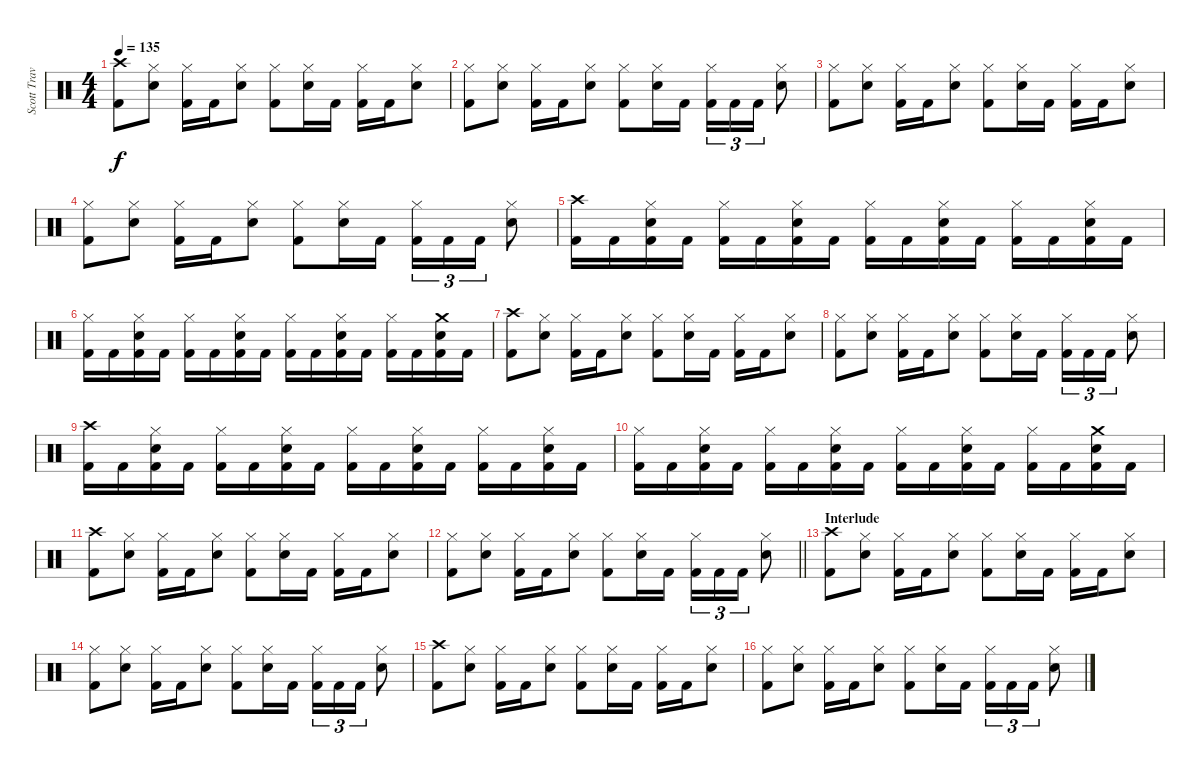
\track ("Scott Travis" "Scott Trav") {instrument percussion}
\staff {score}
\articulation defaults
\ts (4 4)
\tempo 135
\clef neutral
\ks c
("Crash high (hit)" "Kick (hit) 2").8{dy f} ("Hi-Hat (closed)" "Snare (hit) 2").8 ("Hi-Hat (closed)" "Kick (hit) 2").16 "Kick (hit) 2".16 ("Hi-Hat (closed)" "Snare (hit) 2").8 ("Hi-Hat (closed)" "Kick (hit) 2").8 ("Hi-Hat (closed)" "Snare (hit) 2").16 "Kick (hit) 2".16 ("Hi-Hat (closed)" "Kick (hit) 2").16 "Kick (hit) 2".16 ("Hi-Hat (closed)" "Snare (hit) 2").8 |
("Hi-Hat (closed)" "Kick (hit) 2").8 ("Hi-Hat (closed)" "Snare (hit) 2").8 ("Hi-Hat (closed)" "Kick (hit) 2").16 "Kick (hit) 2".16 ("Hi-Hat (closed)" "Snare (hit) 2").8 ("Hi-Hat (closed)" "Kick (hit) 2").8 ("Hi-Hat (closed)" "Snare (hit) 2").16 "Kick (hit) 2".16 ("Hi-Hat (closed)" "Kick (hit) 2").16{tu (3 2)} "Kick (hit) 2".16{tu (3 2)} "Kick (hit) 2".16{tu (3 2)} ("Hi-Hat (closed)" "Snare (hit) 2").8 |
("Hi-Hat (closed)" "Kick (hit) 2").8 ("Hi-Hat (closed)" "Snare (hit) 2").8 ("Hi-Hat (closed)" "Kick (hit) 2").16 "Kick (hit) 2".16 ("Hi-Hat (closed)" "Snare (hit) 2").8 ("Hi-Hat (closed)" "Kick (hit) 2").8 ("Hi-Hat (closed)" "Snare (hit) 2").16 "Kick (hit) 2".16 ("Hi-Hat (closed)" "Kick (hit) 2").16 "Kick (hit) 2".16 ("Hi-Hat (closed)" "Snare (hit) 2").8 |
("Hi-Hat (closed)" "Kick (hit) 2").8 ("Hi-Hat (closed)" "Snare (hit) 2").8 ("Hi-Hat (closed)" "Kick (hit) 2").16 "Kick (hit) 2".16 ("Hi-Hat (closed)" "Snare (hit) 2").8 ("Hi-Hat (closed)" "Kick (hit) 2").8 ("Hi-Hat (closed)" "Snare (hit) 2").16 "Kick (hit) 2".16 ("Hi-Hat (closed)" "Kick (hit) 2").16{tu (3 2)} "Kick (hit) 2".16{tu (3 2)} "Kick (hit) 2".16{tu (3 2)} ("Hi-Hat (closed)" "Snare (hit) 2").8 |
("Crash high (hit)" "Kick (hit) 2").16 "Kick (hit) 2".16 ("Hi-Hat (closed)" "Snare (hit) 2" "Kick (hit) 2").16 "Kick (hit) 2".16 ("Hi-Hat (closed)" "Kick (hit) 2").16 "Kick (hit) 2".16 ("Hi-Hat (closed)" "Snare (hit) 2" "Kick (hit) 2").16 "Kick (hit) 2".16 ("Hi-Hat (closed)" "Kick (hit) 2").16 "Kick (hit) 2".16 ("Hi-Hat (closed)" "Snare (hit) 2" "Kick (hit) 2").16 "Kick (hit) 2".16 ("Hi-Hat (closed)" "Kick (hit) 2").16 "Kick (hit) 2".16 ("Hi-Hat (closed)" "Snare (hit) 2" "Kick (hit) 2").16 "Kick (hit) 2".16 |
("Hi-Hat (closed)" "Kick (hit) 2").16 "Kick (hit) 2".16 ("Hi-Hat (closed)" "Snare (hit) 2" "Kick (hit) 2").16 "Kick (hit) 2".16 ("Hi-Hat (closed)" "Kick (hit) 2").16 "Kick (hit) 2".16 ("Hi-Hat (closed)" "Snare (hit) 2" "Kick (hit) 2").16 "Kick (hit) 2".16 ("Hi-Hat (closed)" "Kick (hit) 2").16 "Kick (hit) 2".16 ("Hi-Hat (closed)" "Snare (hit) 2" "Kick (hit) 2").16 "Kick (hit) 2".16 ("Hi-Hat (closed)" "Kick (hit) 2").16 "Kick (hit) 2".16 ("Crash medium (hit)" "Snare (hit) 2" "Kick (hit) 2").16 "Kick (hit) 2".16 |
("Crash high (hit)" "Kick (hit) 2").8 ("Hi-Hat (closed)" "Snare (hit) 2").8 ("Hi-Hat (closed)" "Kick (hit) 2").16 "Kick (hit) 2".16 ("Hi-Hat (closed)" "Snare (hit) 2").8 ("Hi-Hat (closed)" "Kick (hit) 2").8 ("Hi-Hat (closed)" "Snare (hit) 2").16 "Kick (hit) 2".16 ("Hi-Hat (closed)" "Kick (hit) 2").16 "Kick (hit) 2".16 ("Hi-Hat (closed)" "Snare (hit) 2").8 |
("Hi-Hat (closed)" "Kick (hit) 2").8 ("Hi-Hat (closed)" "Snare (hit) 2").8 ("Hi-Hat (closed)" "Kick (hit) 2").16 "Kick (hit) 2".16 ("Hi-Hat (closed)" "Snare (hit) 2").8 ("Hi-Hat (closed)" "Kick (hit) 2").8 ("Hi-Hat (closed)" "Snare (hit) 2").16 "Kick (hit) 2".16 ("Hi-Hat (closed)" "Kick (hit) 2").16{tu (3 2)} "Kick (hit) 2".16{tu (3 2)} "Kick (hit) 2".16{tu (3 2)} ("Hi-Hat (closed)" "Snare (hit) 2").8 |
("Crash high (hit)" "Kick (hit) 2").16 "Kick (hit) 2".16 ("Hi-Hat (closed)" "Snare (hit) 2" "Kick (hit) 2").16 "Kick (hit) 2".16 ("Hi-Hat (closed)" "Kick (hit) 2").16 "Kick (hit) 2".16 ("Hi-Hat (closed)" "Snare (hit) 2" "Kick (hit) 2").16 "Kick (hit) 2".16 ("Hi-Hat (closed)" "Kick (hit) 2").16 "Kick (hit) 2".16 ("Hi-Hat (closed)" "Snare (hit) 2" "Kick (hit) 2").16 "Kick (hit) 2".16 ("Hi-Hat (closed)" "Kick (hit) 2").16 "Kick (hit) 2".16 ("Hi-Hat (closed)" "Snare (hit) 2" "Kick (hit) 2").16 "Kick (hit) 2".16 |
("Hi-Hat (closed)" "Kick (hit) 2").16 "Kick (hit) 2".16 ("Hi-Hat (closed)" "Snare (hit) 2" "Kick (hit) 2").16 "Kick (hit) 2".16 ("Hi-Hat (closed)" "Kick (hit) 2").16 "Kick (hit) 2".16 ("Hi-Hat (closed)" "Snare (hit) 2" "Kick (hit) 2").16 "Kick (hit) 2".16 ("Hi-Hat (closed)" "Kick (hit) 2").16 "Kick (hit) 2".16 ("Hi-Hat (closed)" "Snare (hit) 2" "Kick (hit) 2").16 "Kick (hit) 2".16 ("Hi-Hat (closed)" "Kick (hit) 2").16 "Kick (hit) 2".16 ("Crash medium (hit)" "Snare (hit) 2" "Kick (hit) 2").16 "Kick (hit) 2".16 |
("Crash high (hit)" "Kick (hit) 2").8 ("Hi-Hat (closed)" "Snare (hit) 2").8 ("Hi-Hat (closed)" "Kick (hit) 2").16 "Kick (hit) 2".16 ("Hi-Hat (closed)" "Snare (hit) 2").8 ("Hi-Hat (closed)" "Kick (hit) 2").8 ("Hi-Hat (closed)" "Snare (hit) 2").16 "Kick (hit) 2".16 ("Hi-Hat (closed)" "Kick (hit) 2").16 "Kick (hit) 2".16 ("Hi-Hat (closed)" "Snare (hit) 2").8 |
\barLineRight lightlight
("Hi-Hat (closed)" "Kick (hit) 2").8 ("Hi-Hat (closed)" "Snare (hit) 2").8 ("Hi-Hat (closed)" "Kick (hit) 2").16 "Kick (hit) 2".16 ("Hi-Hat (closed)" "Snare (hit) 2").8 ("Hi-Hat (closed)" "Kick (hit) 2").8 ("Hi-Hat (closed)" "Snare (hit) 2").16 "Kick (hit) 2".16 ("Hi-Hat (closed)" "Kick (hit) 2").16{tu (3 2)} "Kick (hit) 2".16{tu (3 2)} "Kick (hit) 2".16{tu (3 2)} ("Hi-Hat (closed)" "Snare (hit) 2").8 |
\section ("" "Interlude")
("Crash high (hit)" "Kick (hit) 2").8 ("Hi-Hat (closed)" "Snare (hit) 2").8 ("Hi-Hat (closed)" "Kick (hit) 2").16 "Kick (hit) 2".16 ("Hi-Hat (closed)" "Snare (hit) 2").8 ("Hi-Hat (closed)" "Kick (hit) 2").8 ("Hi-Hat (closed)" "Snare (hit) 2").16 "Kick (hit) 2".16 ("Hi-Hat (closed)" "Kick (hit) 2").16 "Kick (hit) 2".16 ("Hi-Hat (closed)" "Snare (hit) 2").8 |
("Hi-Hat (closed)" "Kick (hit) 2").8 ("Hi-Hat (closed)" "Snare (hit) 2").8 ("Hi-Hat (closed)" "Kick (hit) 2").16 "Kick (hit) 2".16 ("Hi-Hat (closed)" "Snare (hit) 2").8 ("Hi-Hat (closed)" "Kick (hit) 2").8 ("Hi-Hat (closed)" "Snare (hit) 2").16 "Kick (hit) 2".16 ("Hi-Hat (closed)" "Kick (hit) 2").16{tu (3 2)} "Kick (hit) 2".16{tu (3 2)} "Kick (hit) 2".16{tu (3 2)} ("Hi-Hat (closed)" "Snare (hit) 2").8 |
("Crash high (hit)" "Kick (hit) 2").8 ("Hi-Hat (closed)" "Snare (hit) 2").8 ("Hi-Hat (closed)" "Kick (hit) 2").16 "Kick (hit) 2".16 ("Hi-Hat (closed)" "Snare (hit) 2").8 ("Hi-Hat (closed)" "Kick (hit) 2").8 ("Hi-Hat (closed)" "Snare (hit) 2").16 "Kick (hit) 2".16 ("Hi-Hat (closed)" "Kick (hit) 2").16 "Kick (hit) 2".16 ("Hi-Hat (closed)" "Snare (hit) 2").8 |
("Hi-Hat (closed)" "Kick (hit) 2").8 ("Hi-Hat (closed)" "Snare (hit) 2").8 ("Hi-Hat (closed)" "Kick (hit) 2").16 "Kick (hit) 2".16 ("Hi-Hat (closed)" "Snare (hit) 2").8 ("Hi-Hat (closed)" "Kick (hit) 2").8 ("Hi-Hat (closed)" "Snare (hit) 2").16 "Kick (hit) 2".16 ("Hi-Hat (closed)" "Kick (hit) 2").16{tu (3 2)} "Kick (hit) 2".16{tu (3 2)} "Kick (hit) 2".16{tu (3 2)} ("Hi-Hat (closed)" "Snare (hit) 2").8
